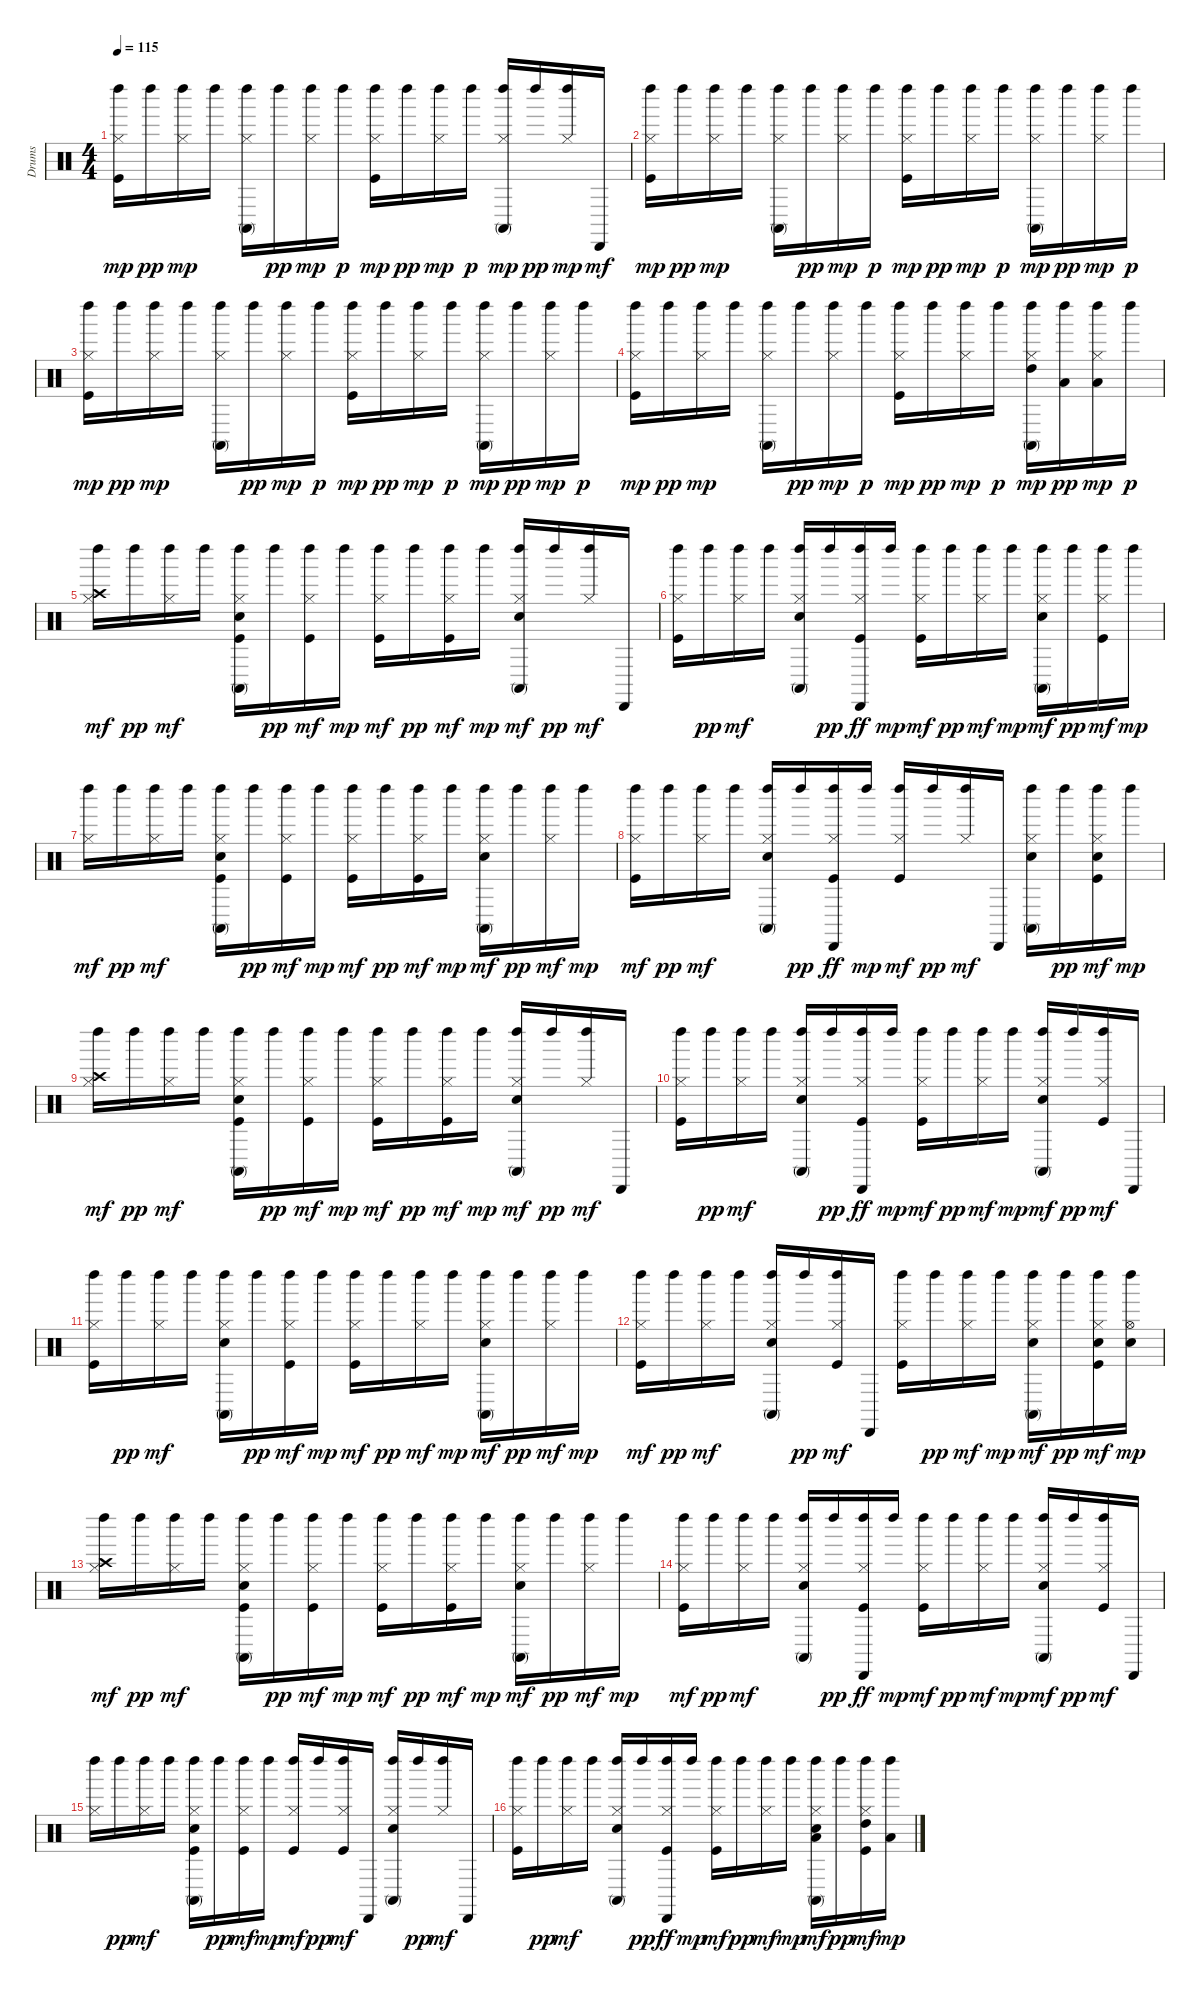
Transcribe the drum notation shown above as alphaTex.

\track ("Drums" "Drums") {instrument percussion}
\staff {score}
\articulation defaults
\ts (4 4)
\tempo 115
\clef neutral
\ks c
("Kick (hit)" "Hi-Hat (closed)" "Left Maraca (hit)").16{dy mp} "Left Maraca (hit)".16{dy pp} ("Hi-Hat (closed)" "Left Maraca (hit)").16{dy mp} "Left Maraca (hit)".16 ("Hi-Hat (closed)" "Conga high (mute)" "Left Maraca (hit)").16 "Left Maraca (hit)".16{dy pp} ("Hi-Hat (closed)" "Left Maraca (hit)").16{dy mp} "Left Maraca (hit)".16{dy p} ("Kick (hit)" "Hi-Hat (closed)" "Left Maraca (hit)").16{dy mp} "Left Maraca (hit)".16{dy pp} ("Hi-Hat (closed)" "Left Maraca (hit)").16{dy mp} "Left Maraca (hit)".16{dy p} ("Hi-Hat (closed)" "Conga high (mute)" "Left Maraca (hit)").16{dy mp} "Left Maraca (hit)".16{dy pp} ("Hi-Hat (closed)" "Left Maraca (hit)").16{dy mp} "Cabasa (hit)".16{dy mf} |
("Kick (hit)" "Hi-Hat (closed)" "Left Maraca (hit)").16{dy mp} "Left Maraca (hit)".16{dy pp} ("Hi-Hat (closed)" "Left Maraca (hit)").16{dy mp} "Left Maraca (hit)".16 ("Hi-Hat (closed)" "Conga high (mute)" "Left Maraca (hit)").16 "Left Maraca (hit)".16{dy pp} ("Hi-Hat (closed)" "Left Maraca (hit)").16{dy mp} "Left Maraca (hit)".16{dy p} ("Kick (hit)" "Hi-Hat (closed)" "Left Maraca (hit)").16{dy mp} "Left Maraca (hit)".16{dy pp} ("Hi-Hat (closed)" "Left Maraca (hit)").16{dy mp} "Left Maraca (hit)".16{dy p} ("Hi-Hat (closed)" "Conga high (mute)" "Left Maraca (hit)").16{dy mp} "Left Maraca (hit)".16{dy pp} ("Hi-Hat (closed)" "Left Maraca (hit)").16{dy mp} "Left Maraca (hit)".16{dy p} |
("Kick (hit)" "Hi-Hat (closed)" "Left Maraca (hit)").16{dy mp} "Left Maraca (hit)".16{dy pp} ("Hi-Hat (closed)" "Left Maraca (hit)").16{dy mp} "Left Maraca (hit)".16 ("Hi-Hat (closed)" "Conga high (mute)" "Left Maraca (hit)").16 "Left Maraca (hit)".16{dy pp} ("Hi-Hat (closed)" "Left Maraca (hit)").16{dy mp} "Left Maraca (hit)".16{dy p} ("Kick (hit)" "Hi-Hat (closed)" "Left Maraca (hit)").16{dy mp} "Left Maraca (hit)".16{dy pp} ("Hi-Hat (closed)" "Left Maraca (hit)").16{dy mp} "Left Maraca (hit)".16{dy p} ("Hi-Hat (closed)" "Conga high (mute)" "Left Maraca (hit)").16{dy mp} "Left Maraca (hit)".16{dy pp} ("Hi-Hat (closed)" "Left Maraca (hit)").16{dy mp} "Left Maraca (hit)".16{dy p} |
("Kick (hit)" "Hi-Hat (closed)" "Left Maraca (hit)").16{dy mp} "Left Maraca (hit)".16{dy pp} ("Hi-Hat (closed)" "Left Maraca (hit)").16{dy mp} "Left Maraca (hit)".16 ("Hi-Hat (closed)" "Conga high (mute)" "Left Maraca (hit)").16 "Left Maraca (hit)".16{dy pp} ("Hi-Hat (closed)" "Left Maraca (hit)").16{dy mp} "Left Maraca (hit)".16{dy p} ("Kick (hit)" "Hi-Hat (closed)" "Left Maraca (hit)").16{dy mp} "Left Maraca (hit)".16{dy pp} ("Hi-Hat (closed)" "Left Maraca (hit)").16{dy mp} "Left Maraca (hit)".16{dy p} ("Hi-Hat (closed)" "High Tom (hit)" "Conga high (mute)" "Left Maraca (hit)").16{dy mp} ("Low Tom (hit)" "Left Maraca (hit)").16{dy pp} ("Hi-Hat (closed)" "Low Floor Tom (hit)" "Left Maraca (hit)").16{dy mp} "Left Maraca (hit)".16{dy p} |
("Hi-Hat (closed)" "Crash high (hit)" "Left Maraca (hit)").16{dy mf} "Left Maraca (hit)".16{dy pp} ("Hi-Hat (closed)" "Left Maraca (hit)").16{dy mf} "Left Maraca (hit)".16 ("Kick (hit)" "Snare (hit) 2" "Hi-Hat (closed)" "Conga high (mute)" "Left Maraca (hit)").16 "Left Maraca (hit)".16{dy pp} ("Kick (hit)" "Hi-Hat (closed)" "Left Maraca (hit)").16{dy mf} "Left Maraca (hit)".16{dy mp} ("Kick (hit)" "Hi-Hat (closed)" "Left Maraca (hit)").16{dy mf} "Left Maraca (hit)".16{dy pp} ("Kick (hit)" "Hi-Hat (closed)" "Left Maraca (hit)").16{dy mf} "Left Maraca (hit)".16{dy mp} ("Snare (hit) 2" "Hi-Hat (closed)" "Conga high (mute)" "Left Maraca (hit)").16{dy mf} "Left Maraca (hit)".16{dy pp} ("Hi-Hat (closed)" "Left Maraca (hit)").16{dy mf} "Cabasa (hit)".16 |
("Kick (hit)" "Hi-Hat (closed)" "Left Maraca (hit)").16 "Left Maraca (hit)".16{dy pp} ("Hi-Hat (closed)" "Left Maraca (hit)").16{dy mf} "Left Maraca (hit)".16 ("Snare (hit) 2" "Hi-Hat (closed)" "Conga high (mute)" "Left Maraca (hit)").16 "Left Maraca (hit)".16{dy pp} ("Kick (hit)" "Hi-Hat (closed)" "Left Maraca (hit)" "Cabasa (hit)").16{dy ff} "Left Maraca (hit)".16{dy mp} ("Kick (hit)" "Hi-Hat (closed)" "Left Maraca (hit)").16{dy mf} "Left Maraca (hit)".16{dy pp} ("Hi-Hat (closed)" "Left Maraca (hit)").16{dy mf} "Left Maraca (hit)".16{dy mp} ("Snare (hit) 2" "Hi-Hat (closed)" "Conga high (mute)" "Left Maraca (hit)").16{dy mf} "Left Maraca (hit)".16{dy pp} ("Kick (hit)" "Hi-Hat (closed)" "Left Maraca (hit)").16{dy mf} "Left Maraca (hit)".16{dy mp} |
("Hi-Hat (closed)" "Left Maraca (hit)").16{dy mf} "Left Maraca (hit)".16{dy pp} ("Hi-Hat (closed)" "Left Maraca (hit)").16{dy mf} "Left Maraca (hit)".16 ("Kick (hit)" "Snare (hit) 2" "Hi-Hat (closed)" "Conga high (mute)" "Left Maraca (hit)").16 "Left Maraca (hit)".16{dy pp} ("Kick (hit)" "Hi-Hat (closed)" "Left Maraca (hit)").16{dy mf} "Left Maraca (hit)".16{dy mp} ("Kick (hit)" "Hi-Hat (closed)" "Left Maraca (hit)").16{dy mf} "Left Maraca (hit)".16{dy pp} ("Kick (hit)" "Hi-Hat (closed)" "Left Maraca (hit)").16{dy mf} "Left Maraca (hit)".16{dy mp} ("Snare (hit) 2" "Hi-Hat (closed)" "Conga high (mute)" "Left Maraca (hit)").16{dy mf} "Left Maraca (hit)".16{dy pp} ("Hi-Hat (closed)" "Left Maraca (hit)").16{dy mf} "Left Maraca (hit)".16{dy mp} |
("Kick (hit)" "Hi-Hat (closed)" "Left Maraca (hit)").16{dy mf} "Left Maraca (hit)".16{dy pp} ("Hi-Hat (closed)" "Left Maraca (hit)").16{dy mf} "Left Maraca (hit)".16 ("Snare (hit) 2" "Hi-Hat (closed)" "Conga high (mute)" "Left Maraca (hit)").16 "Left Maraca (hit)".16{dy pp} ("Kick (hit)" "Hi-Hat (closed)" "Left Maraca (hit)" "Cabasa (hit)").16{dy ff} "Left Maraca (hit)".16{dy mp} ("Kick (hit)" "Hi-Hat (closed)" "Left Maraca (hit)").16{dy mf} "Left Maraca (hit)".16{dy pp} ("Hi-Hat (closed)" "Left Maraca (hit)").16{dy mf} "Cabasa (hit)".16 ("Snare (hit) 2" "Hi-Hat (closed)" "Conga high (mute)" "Left Maraca (hit)").16 "Left Maraca (hit)".16{dy pp} ("Kick (hit)" "Snare (hit) 2" "Hi-Hat (closed)" "Left Maraca (hit)").16{dy mf} "Left Maraca (hit)".16{dy mp} |
("Hi-Hat (closed)" "Crash high (hit)" "Left Maraca (hit)").16{dy mf} "Left Maraca (hit)".16{dy pp} ("Hi-Hat (closed)" "Left Maraca (hit)").16{dy mf} "Left Maraca (hit)".16 ("Kick (hit)" "Snare (hit) 2" "Hi-Hat (closed)" "Conga high (mute)" "Left Maraca (hit)").16 "Left Maraca (hit)".16{dy pp} ("Kick (hit)" "Hi-Hat (closed)" "Left Maraca (hit)").16{dy mf} "Left Maraca (hit)".16{dy mp} ("Kick (hit)" "Hi-Hat (closed)" "Left Maraca (hit)").16{dy mf} "Left Maraca (hit)".16{dy pp} ("Kick (hit)" "Hi-Hat (closed)" "Left Maraca (hit)").16{dy mf} "Left Maraca (hit)".16{dy mp} ("Snare (hit) 2" "Hi-Hat (closed)" "Conga high (mute)" "Left Maraca (hit)").16{dy mf} "Left Maraca (hit)".16{dy pp} ("Hi-Hat (closed)" "Left Maraca (hit)").16{dy mf} "Cabasa (hit)".16 |
("Kick (hit)" "Hi-Hat (closed)" "Left Maraca (hit)").16 "Left Maraca (hit)".16{dy pp} ("Hi-Hat (closed)" "Left Maraca (hit)").16{dy mf} "Left Maraca (hit)".16 ("Snare (hit) 2" "Hi-Hat (closed)" "Conga high (mute)" "Left Maraca (hit)").16 "Left Maraca (hit)".16{dy pp} ("Kick (hit)" "Hi-Hat (closed)" "Left Maraca (hit)" "Cabasa (hit)").16{dy ff} "Left Maraca (hit)".16{dy mp} ("Kick (hit)" "Hi-Hat (closed)" "Left Maraca (hit)").16{dy mf} "Left Maraca (hit)".16{dy pp} ("Hi-Hat (closed)" "Left Maraca (hit)").16{dy mf} "Left Maraca (hit)".16{dy mp} ("Snare (hit) 2" "Hi-Hat (closed)" "Conga high (mute)" "Left Maraca (hit)").16{dy mf} "Left Maraca (hit)".16{dy pp} ("Kick (hit)" "Hi-Hat (closed)" "Left Maraca (hit)").16{dy mf} "Cabasa (hit)".16 |
("Kick (hit)" "Hi-Hat (closed)" "Left Maraca (hit)").16 "Left Maraca (hit)".16{dy pp} ("Hi-Hat (closed)" "Left Maraca (hit)").16{dy mf} "Left Maraca (hit)".16 ("Snare (hit) 2" "Hi-Hat (closed)" "Conga high (mute)" "Left Maraca (hit)").16 "Left Maraca (hit)".16{dy pp} ("Kick (hit)" "Hi-Hat (closed)" "Left Maraca (hit)").16{dy mf} "Left Maraca (hit)".16{dy mp} ("Kick (hit)" "Hi-Hat (closed)" "Left Maraca (hit)").16{dy mf} "Left Maraca (hit)".16{dy pp} ("Hi-Hat (closed)" "Left Maraca (hit)").16{dy mf} "Left Maraca (hit)".16{dy mp} ("Snare (hit) 2" "Hi-Hat (closed)" "Conga high (mute)" "Left Maraca (hit)").16{dy mf} "Left Maraca (hit)".16{dy pp} ("Hi-Hat (closed)" "Left Maraca (hit)").16{dy mf} "Left Maraca (hit)".16{dy mp} |
("Kick (hit)" "Hi-Hat (closed)" "Left Maraca (hit)").16{dy mf} "Left Maraca (hit)".16{dy pp} ("Hi-Hat (closed)" "Left Maraca (hit)").16{dy mf} "Left Maraca (hit)".16 ("Snare (hit) 2" "Hi-Hat (closed)" "Conga high (mute)" "Left Maraca (hit)").16 "Left Maraca (hit)".16{dy pp} ("Kick (hit)" "Hi-Hat (closed)" "Left Maraca (hit)").16{dy mf} "Cabasa (hit)".16 ("Kick (hit)" "Hi-Hat (closed)" "Left Maraca (hit)").16 "Left Maraca (hit)".16{dy pp} ("Hi-Hat (closed)" "Left Maraca (hit)").16{dy mf} "Left Maraca (hit)".16{dy mp} ("Snare (hit) 2" "Hi-Hat (closed)" "Conga high (mute)" "Left Maraca (hit)").16{dy mf} "Left Maraca (hit)".16{dy pp} ("Kick (hit)" "Snare (hit) 2" "Hi-Hat (closed)" "Left Maraca (hit)").16{dy mf} ("Snare (hit) 2" "Hi-Hat (open)" "Left Maraca (hit)").16{dy mp} |
("Hi-Hat (closed)" "Crash high (hit)" "Left Maraca (hit)").16{dy mf} "Left Maraca (hit)".16{dy pp} ("Hi-Hat (closed)" "Left Maraca (hit)").16{dy mf} "Left Maraca (hit)".16 ("Kick (hit)" "Snare (hit) 2" "Hi-Hat (closed)" "Conga high (mute)" "Left Maraca (hit)").16 "Left Maraca (hit)".16{dy pp} ("Kick (hit)" "Hi-Hat (closed)" "Left Maraca (hit)").16{dy mf} "Left Maraca (hit)".16{dy mp} ("Kick (hit)" "Hi-Hat (closed)" "Left Maraca (hit)").16{dy mf} "Left Maraca (hit)".16{dy pp} ("Kick (hit)" "Hi-Hat (closed)" "Left Maraca (hit)").16{dy mf} "Left Maraca (hit)".16{dy mp} ("Snare (hit) 2" "Hi-Hat (closed)" "Conga high (mute)" "Left Maraca (hit)").16{dy mf} "Left Maraca (hit)".16{dy pp} ("Hi-Hat (closed)" "Left Maraca (hit)").16{dy mf} "Left Maraca (hit)".16{dy mp} |
("Kick (hit)" "Hi-Hat (closed)" "Left Maraca (hit)").16{dy mf} "Left Maraca (hit)".16{dy pp} ("Hi-Hat (closed)" "Left Maraca (hit)").16{dy mf} "Left Maraca (hit)".16 ("Snare (hit) 2" "Hi-Hat (closed)" "Conga high (mute)" "Left Maraca (hit)").16 "Left Maraca (hit)".16{dy pp} ("Kick (hit)" "Hi-Hat (closed)" "Left Maraca (hit)" "Cabasa (hit)").16{dy ff} "Left Maraca (hit)".16{dy mp} ("Kick (hit)" "Hi-Hat (closed)" "Left Maraca (hit)").16{dy mf} "Left Maraca (hit)".16{dy pp} ("Hi-Hat (closed)" "Left Maraca (hit)").16{dy mf} "Left Maraca (hit)".16{dy mp} ("Snare (hit) 2" "Hi-Hat (closed)" "Conga high (mute)" "Left Maraca (hit)").16{dy mf} "Left Maraca (hit)".16{dy pp} ("Kick (hit)" "Hi-Hat (closed)" "Left Maraca (hit)").16{dy mf} "Cabasa (hit)".16 |
("Hi-Hat (closed)" "Left Maraca (hit)").16 "Left Maraca (hit)".16{dy pp} ("Hi-Hat (closed)" "Left Maraca (hit)").16{dy mf} "Left Maraca (hit)".16 ("Kick (hit)" "Snare (hit) 2" "Hi-Hat (closed)" "Conga high (mute)" "Left Maraca (hit)").16 "Left Maraca (hit)".16{dy pp} ("Kick (hit)" "Hi-Hat (closed)" "Left Maraca (hit)").16{dy mf} "Left Maraca (hit)".16{dy mp} ("Kick (hit)" "Hi-Hat (closed)" "Left Maraca (hit)").16{dy mf} "Left Maraca (hit)".16{dy pp} ("Kick (hit)" "Hi-Hat (closed)" "Left Maraca (hit)").16{dy mf} "Cabasa (hit)".16 ("Snare (hit) 2" "Hi-Hat (closed)" "Conga high (mute)" "Left Maraca (hit)").16 "Left Maraca (hit)".16{dy pp} ("Hi-Hat (closed)" "Left Maraca (hit)").16{dy mf} "Cabasa (hit)".16 |
("Kick (hit)" "Hi-Hat (closed)" "Left Maraca (hit)").16 "Left Maraca (hit)".16{dy pp} ("Hi-Hat (closed)" "Left Maraca (hit)").16{dy mf} "Left Maraca (hit)".16 ("Snare (hit) 2" "Hi-Hat (closed)" "Conga high (mute)" "Left Maraca (hit)").16 "Left Maraca (hit)".16{dy pp} ("Kick (hit)" "Hi-Hat (closed)" "Left Maraca (hit)" "Cabasa (hit)").16{dy ff} "Left Maraca (hit)".16{dy mp} ("Kick (hit)" "Hi-Hat (closed)" "Left Maraca (hit)").16{dy mf} "Left Maraca (hit)".16{dy pp} ("Hi-Hat (closed)" "Left Maraca (hit)").16{dy mf} "Left Maraca (hit)".16{dy mp} ("Snare (hit) 2" "Hi-Hat (closed)" "Low Floor Tom (hit)" "Conga high (mute)" "Left Maraca (hit)").16{dy mf} "Left Maraca (hit)".16{dy pp} ("Kick (hit)" "Hi-Hat (closed)" "High Tom (hit)" "Left Maraca (hit)").16{dy mf} ("Low Tom (hit)" "Left Maraca (hit)").16{dy mp}
